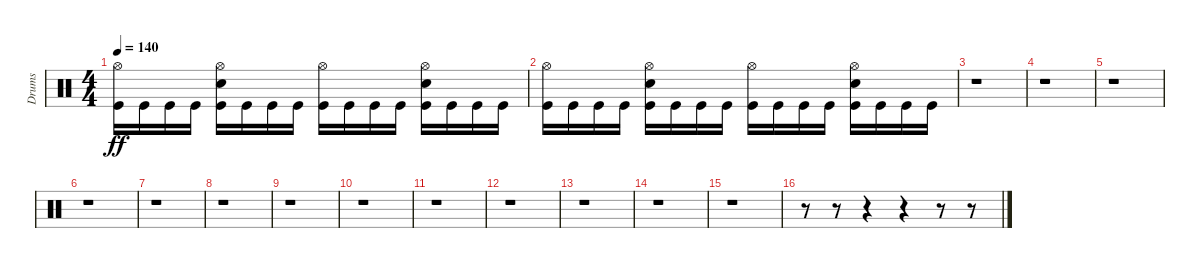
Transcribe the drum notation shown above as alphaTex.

\track ("Drums" "Drums") {instrument percussion}
\staff {score}
\articulation defaults
\ts (4 4)
\tempo 140
\clef neutral
\ks c
("Hi-Hat (open)" "Kick (hit)").16{dy ff} "Kick (hit)".16 "Kick (hit)".16 "Kick (hit)".16 ("Hi-Hat (open)" "Snare (hit) 2" "Kick (hit)").16 "Kick (hit)".16 "Kick (hit)".16 "Kick (hit)".16 ("Hi-Hat (open)" "Kick (hit)").16 "Kick (hit)".16 "Kick (hit)".16 "Kick (hit)".16 ("Hi-Hat (open)" "Snare (hit) 2" "Kick (hit)").16 "Kick (hit)".16 "Kick (hit)".16 "Kick (hit)".16 |
("Hi-Hat (open)" "Kick (hit)").16 "Kick (hit)".16 "Kick (hit)".16 "Kick (hit)".16 ("Hi-Hat (open)" "Snare (hit) 2" "Kick (hit)").16 "Kick (hit)".16 "Kick (hit)".16 "Kick (hit)".16 ("Hi-Hat (open)" "Kick (hit)").16 "Kick (hit)".16 "Kick (hit)".16 "Kick (hit)".16 ("Hi-Hat (open)" "Snare (hit) 2" "Kick (hit)").16 "Kick (hit)".16 "Kick (hit)".16 "Kick (hit)".16 |
r.1 |
r.1 |
r.1 |
r.1 |
r.1 |
r.1 |
r.1 |
r.1 |
r.1 |
r.1 |
r.1 |
r.1 |
r.1 |
r.8 r.8 r.4 r.4 r.8 r.8
